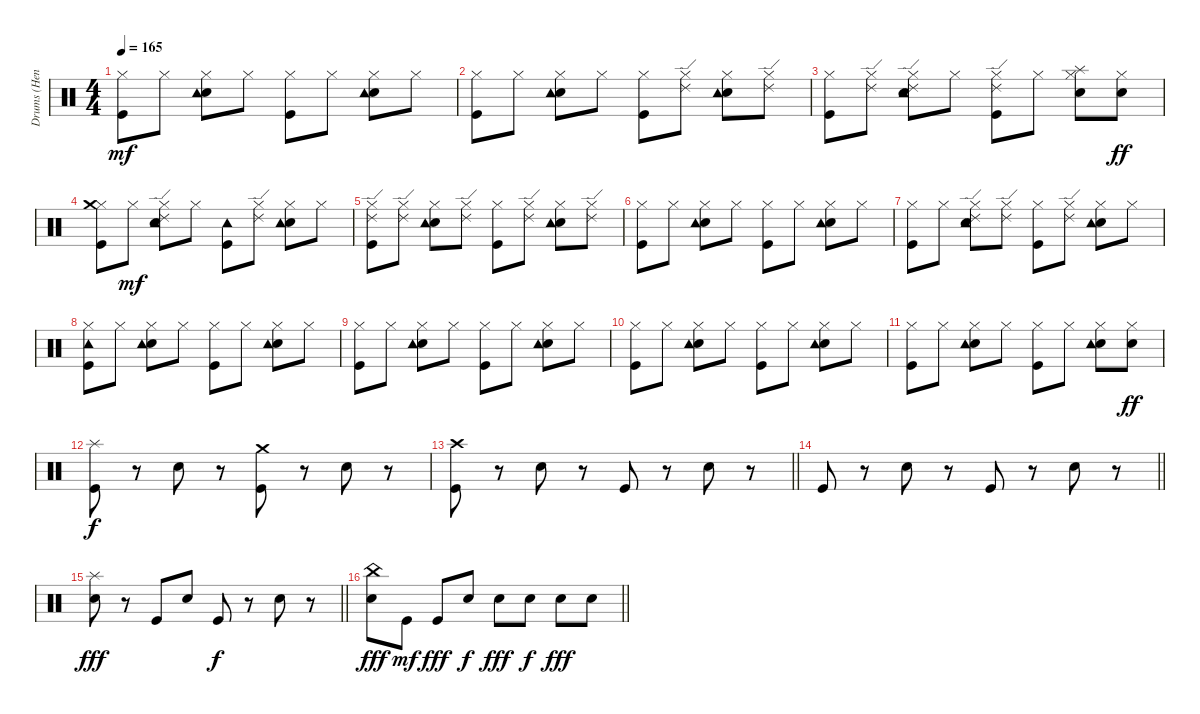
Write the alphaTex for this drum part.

\track ("Drums (Henry)" "Drums (Hen") {instrument percussion}
\staff {score}
\articulation defaults
\ts (4 4)
\tempo 165
\clef neutral
\ks c
("Kick (hit)" "Hi-Hat (closed)").8{dy mf} "Hi-Hat (closed)".8 ("Snare (hit) 2" "Tambourine (hit)" "Hi-Hat (closed)").8 "Hi-Hat (closed)".8 ("Kick (hit)" "Hi-Hat (closed)").8 "Hi-Hat (closed)".8 ("Snare (hit) 2" "Tambourine (hit)" "Hi-Hat (closed)").8 "Hi-Hat (closed)".8 |
("Kick (hit)" "Hi-Hat (closed)").8 "Hi-Hat (closed)".8 ("Snare (hit) 2" "Tambourine (hit)" "Hi-Hat (closed)").8 "Hi-Hat (closed)".8 ("Kick (hit)" "Hi-Hat (closed)").8 ("Hi-Hat (closed)" "Ride (edge) 2").8 ("Snare (hit) 2" "Tambourine (hit)" "Hi-Hat (closed)").8 ("Hi-Hat (closed)" "Ride (edge) 2").8 |
("Kick (hit)" "Hi-Hat (closed)").8 ("Hi-Hat (closed)" "Ride (edge) 2").8 ("Snare (hit) 2" "Tambourine (hit)" "Hi-Hat (closed)" "Ride (edge) 2").8 "Hi-Hat (closed)".8 ("Kick (hit)" "Hi-Hat (closed)" "Ride (edge) 2").8 "Hi-Hat (closed)".8 ("Snare (hit) 2" "Splash (hit)" "Hi-Hat (closed)").8 ("Hi-Hat (closed)" "Snare (hit) 2").8{dy ff} |
("Kick (hit)" "Hi-Hat (closed)" "Crash medium (hit)").8 "Hi-Hat (closed)".8{dy mf} ("Snare (hit) 2" "Tambourine (hit)" "Hi-Hat (closed)" "Ride (edge) 2").8 "Hi-Hat (closed)".8 ("Kick (hit)" "Tambourine (hit)").8 ("Hi-Hat (closed)" "Ride (edge) 2").8 ("Snare (hit) 2" "Tambourine (hit)" "Hi-Hat (closed)").8 "Hi-Hat (closed)".8 |
("Kick (hit)" "Hi-Hat (closed)" "Ride (edge) 2").8 ("Hi-Hat (closed)" "Ride (edge) 2").8 ("Snare (hit) 2" "Tambourine (hit)" "Hi-Hat (closed)").8 ("Hi-Hat (closed)" "Ride (edge) 2").8 ("Kick (hit)" "Hi-Hat (closed)").8 ("Hi-Hat (closed)" "Ride (edge) 2").8 ("Snare (hit) 2" "Tambourine (hit)" "Hi-Hat (closed)").8 ("Hi-Hat (closed)" "Ride (edge) 2").8 |
("Kick (hit)" "Hi-Hat (closed)").8 "Hi-Hat (closed)".8 ("Snare (hit) 2" "Tambourine (hit)" "Hi-Hat (closed)").8 "Hi-Hat (closed)".8 ("Kick (hit)" "Hi-Hat (closed)").8 "Hi-Hat (closed)".8 ("Snare (hit) 2" "Tambourine (hit)" "Hi-Hat (closed)").8 "Hi-Hat (closed)".8 |
("Kick (hit)" "Hi-Hat (closed)").8 "Hi-Hat (closed)".8 ("Snare (hit) 2" "Tambourine (hit)" "Hi-Hat (closed)" "Ride (edge) 2").8 ("Hi-Hat (closed)" "Ride (edge) 2").8 ("Kick (hit)" "Hi-Hat (closed)").8 ("Hi-Hat (closed)" "Ride (edge) 2").8 ("Snare (hit) 2" "Tambourine (hit)" "Hi-Hat (closed)").8 "Hi-Hat (closed)".8 |
("Kick (hit)" "Hi-Hat (closed)" "Tambourine (hit)").8 "Hi-Hat (closed)".8 ("Snare (hit) 2" "Tambourine (hit)" "Hi-Hat (closed)").8 "Hi-Hat (closed)".8 ("Kick (hit)" "Hi-Hat (closed)").8 "Hi-Hat (closed)".8 ("Snare (hit) 2" "Tambourine (hit)" "Hi-Hat (closed)").8 "Hi-Hat (closed)".8 |
("Kick (hit)" "Hi-Hat (closed)").8 "Hi-Hat (closed)".8 ("Snare (hit) 2" "Tambourine (hit)" "Hi-Hat (closed)").8 "Hi-Hat (closed)".8 ("Kick (hit)" "Hi-Hat (closed)").8 "Hi-Hat (closed)".8 ("Snare (hit) 2" "Tambourine (hit)" "Hi-Hat (closed)").8 "Hi-Hat (closed)".8 |
("Kick (hit)" "Hi-Hat (closed)").8 "Hi-Hat (closed)".8 ("Snare (hit) 2" "Tambourine (hit)" "Hi-Hat (closed)").8 "Hi-Hat (closed)".8 ("Kick (hit)" "Hi-Hat (closed)").8 "Hi-Hat (closed)".8 ("Snare (hit) 2" "Tambourine (hit)" "Hi-Hat (closed)").8 "Hi-Hat (closed)".8 |
("Kick (hit)" "Hi-Hat (closed)").8 "Hi-Hat (closed)".8 ("Snare (hit) 2" "Tambourine (hit)" "Hi-Hat (closed)").8 "Hi-Hat (closed)".8 ("Kick (hit)" "Hi-Hat (closed)").8 "Hi-Hat (closed)".8 ("Snare (hit) 2" "Tambourine (hit)" "Hi-Hat (closed)").8 ("Hi-Hat (closed)" "Snare (hit) 2").8{dy ff} |
("Kick (hit)" "Splash (hit)").8{dy f} r.8 "Snare (hit) 2".8 r.8 ("Kick (hit)" "Crash medium (hit)").8 r.8 "Snare (hit) 2".8 r.8 |
\barLineRight lightlight
("Kick (hit)" "Crash high (hit)").8 r.8 "Snare (hit) 2".8 r.8 "Kick (hit)".8 r.8 "Snare (hit) 2".8 r.8 |
\barLineRight lightlight "Kick (hit)".8
r.8 "Snare (hit) 2".8 r.8 "Kick (hit)".8 r.8 "Snare (hit) 2".8 r.8 |
\barLineRight lightlight
("Snare (hit) 2" "Splash (hit)").8{dy fff} r.8 "Kick (hit)".8 "Snare (hit) 2".8 "Kick (hit)".8{dy f} r.8 "Snare (hit) 2".8 r.8 |
\barLineRight lightlight
("Snare (hit) 2" "China (hit)").8{dy fff} "Kick (hit)".8{dy mf} "Kick (hit)".8{dy fff} "Snare (hit) 2".8{dy f} "Snare (hit) 2".8{dy fff} "Snare (hit) 2".8{dy f} "Snare (hit) 2".8{dy fff} "Snare (hit) 2".8
